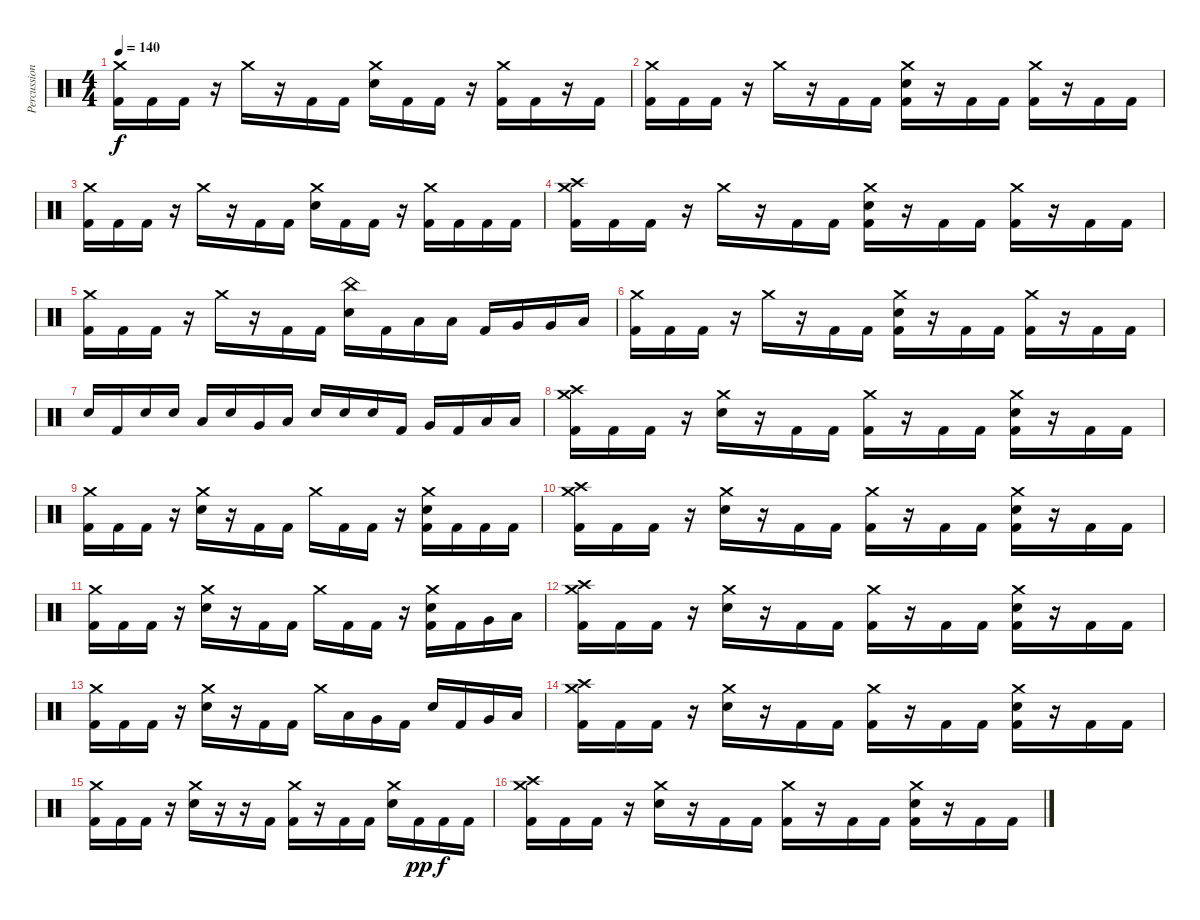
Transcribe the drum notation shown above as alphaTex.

\track ("Percussion" "Percussion") {instrument percussion}
\staff {score}
\articulation defaults
\ts (4 4)
\tempo 140
\clef neutral
\ks c
("Crash medium (hit)" "Kick (hit) 2").16{dy f} "Kick (hit) 2".16 "Kick (hit) 2".16 r.16 "Crash medium (hit)".16 r.16 "Kick (hit) 2".16 "Kick (hit) 2".16 ("Crash medium (hit)" "Electric Snare (hit)").16 "Kick (hit) 2".16 "Kick (hit) 2".16 r.16 ("Crash medium (hit)" "Kick (hit) 2").16 "Kick (hit) 2".16 r.16 "Kick (hit) 2".16 |
("Crash medium (hit)" "Kick (hit) 2").16 "Kick (hit) 2".16 "Kick (hit) 2".16 r.16 "Crash medium (hit)".16 r.16 "Kick (hit) 2".16 "Kick (hit) 2".16 ("Crash medium (hit)" "Electric Snare (hit)" "Kick (hit) 2").16 r.16 "Kick (hit) 2".16 "Kick (hit) 2".16 ("Crash medium (hit)" "Kick (hit) 2").16 r.16 "Kick (hit) 2".16 "Kick (hit) 2".16 |
("Crash medium (hit)" "Kick (hit) 2").16 "Kick (hit) 2".16 "Kick (hit) 2".16 r.16 "Crash medium (hit)".16 r.16 "Kick (hit) 2".16 "Kick (hit) 2".16 ("Crash medium (hit)" "Electric Snare (hit)").16 "Kick (hit) 2".16 "Kick (hit) 2".16 r.16 ("Crash medium (hit)" "Kick (hit) 2").16 "Kick (hit) 2".16 "Kick (hit) 2".16 "Kick (hit) 2".16 |
("Crash high (hit)" "Crash medium (hit)" "Kick (hit) 2").16 "Kick (hit) 2".16 "Kick (hit) 2".16 r.16 "Crash medium (hit)".16 r.16 "Kick (hit) 2".16 "Kick (hit) 2".16 ("Crash medium (hit)" "Electric Snare (hit)" "Kick (hit) 2").16 r.16 "Kick (hit) 2".16 "Kick (hit) 2".16 ("Crash medium (hit)" "Kick (hit) 2").16 r.16 "Kick (hit) 2".16 "Kick (hit) 2".16 |
("Crash medium (hit)" "Kick (hit) 2").16 "Kick (hit) 2".16 "Kick (hit) 2".16 r.16 "Crash medium (hit)".16 r.16 "Kick (hit) 2".16 "Kick (hit) 2".16 ("China (hit)" "Electric Snare (hit)").16 "Kick (hit) 2".16 "Low Tom (hit)".16 "Low Tom (hit)".16 "Kick (hit) 2".16 "Very Low Tom (hit)".16 "Very Low Tom (hit)".16 "Low Floor Tom (hit)".16 |
("Crash medium (hit)" "Kick (hit) 2").16 "Kick (hit) 2".16 "Kick (hit) 2".16 r.16 "Crash medium (hit)".16 r.16 "Kick (hit) 2".16 "Kick (hit) 2".16 ("Crash medium (hit)" "Electric Snare (hit)" "Kick (hit) 2").16 r.16 "Kick (hit) 2".16 "Kick (hit) 2".16 ("Crash medium (hit)" "Kick (hit) 2").16 r.16 "Kick (hit) 2".16 "Kick (hit) 2".16 |
"Electric Snare (hit)".16 "Kick (hit) 2".16 "Electric Snare (hit)".16 "Electric Snare (hit)".16 "Low Tom (hit)".16 "Electric Snare (hit)".16 "Very Low Tom (hit)".16 "Low Floor Tom (hit)".16 "Electric Snare (hit)".16 "Electric Snare (hit)".16 "Electric Snare (hit)".16 "Kick (hit) 2".16 "Very Low Tom (hit)".16 "Kick (hit) 2".16 "Low Floor Tom (hit)".16 "Low Floor Tom (hit)".16 |
("Crash high (hit)" "Crash medium (hit)" "Kick (hit) 2").16 "Kick (hit) 2".16 "Kick (hit) 2".16 r.16 ("Crash medium (hit)" "Electric Snare (hit)").16 r.16 "Kick (hit) 2".16 "Kick (hit) 2".16 ("Crash medium (hit)" "Kick (hit) 2").16 r.16 "Kick (hit) 2".16 "Kick (hit) 2".16 ("Crash medium (hit)" "Electric Snare (hit)" "Kick (hit) 2").16 r.16 "Kick (hit) 2".16 "Kick (hit) 2".16 |
("Crash medium (hit)" "Kick (hit) 2").16 "Kick (hit) 2".16 "Kick (hit) 2".16 r.16 ("Crash medium (hit)" "Electric Snare (hit)").16 r.16 "Kick (hit) 2".16 "Kick (hit) 2".16 "Crash medium (hit)".16 "Kick (hit) 2".16 "Kick (hit) 2".16 r.16 ("Crash medium (hit)" "Electric Snare (hit)" "Kick (hit) 2").16 "Kick (hit) 2".16 "Kick (hit) 2".16 "Kick (hit) 2".16 |
("Crash high (hit)" "Crash medium (hit)" "Kick (hit) 2").16 "Kick (hit) 2".16 "Kick (hit) 2".16 r.16 ("Crash medium (hit)" "Electric Snare (hit)").16 r.16 "Kick (hit) 2".16 "Kick (hit) 2".16 ("Crash medium (hit)" "Kick (hit) 2").16 r.16 "Kick (hit) 2".16 "Kick (hit) 2".16 ("Crash medium (hit)" "Electric Snare (hit)" "Kick (hit) 2").16 r.16 "Kick (hit) 2".16 "Kick (hit) 2".16 |
("Crash medium (hit)" "Kick (hit) 2").16 "Kick (hit) 2".16 "Kick (hit) 2".16 r.16 ("Crash medium (hit)" "Electric Snare (hit)").16 r.16 "Kick (hit) 2".16 "Kick (hit) 2".16 "Crash medium (hit)".16 "Kick (hit) 2".16 "Kick (hit) 2".16 r.16 ("Crash medium (hit)" "Electric Snare (hit)" "Kick (hit) 2").16 "Kick (hit) 2".16 "Very Low Tom (hit)".16 "Low Floor Tom (hit)".16 |
("Crash high (hit)" "Crash medium (hit)" "Kick (hit) 2").16 "Kick (hit) 2".16 "Kick (hit) 2".16 r.16 ("Crash medium (hit)" "Electric Snare (hit)").16 r.16 "Kick (hit) 2".16 "Kick (hit) 2".16 ("Crash medium (hit)" "Kick (hit) 2").16 r.16 "Kick (hit) 2".16 "Kick (hit) 2".16 ("Crash medium (hit)" "Electric Snare (hit)" "Kick (hit) 2").16 r.16 "Kick (hit) 2".16 "Kick (hit) 2".16 |
("Crash medium (hit)" "Kick (hit) 2").16 "Kick (hit) 2".16 "Kick (hit) 2".16 r.16 ("Crash medium (hit)" "Electric Snare (hit)").16 r.16 "Kick (hit) 2".16 "Kick (hit) 2".16 "Crash medium (hit)".16 "Low Tom (hit)".16 "Very Low Tom (hit)".16 "Kick (hit) 2".16 "Electric Snare (hit)".16 "Kick (hit) 2".16 "Very Low Tom (hit)".16 "Low Floor Tom (hit)".16 |
("Crash high (hit)" "Crash medium (hit)" "Kick (hit) 2").16 "Kick (hit) 2".16 "Kick (hit) 2".16 r.16 ("Crash medium (hit)" "Electric Snare (hit)").16 r.16 "Kick (hit) 2".16 "Kick (hit) 2".16 ("Crash medium (hit)" "Kick (hit) 2").16 r.16 "Kick (hit) 2".16 "Kick (hit) 2".16 ("Crash medium (hit)" "Electric Snare (hit)" "Kick (hit) 2").16 r.16 "Kick (hit) 2".16 "Kick (hit) 2".16 |
("Crash medium (hit)" "Kick (hit) 2").16 "Kick (hit) 2".16 "Kick (hit) 2".16 r.16 ("Crash medium (hit)" "Electric Snare (hit)").16 r.16 r.16 "Kick (hit) 2".16 ("Crash medium (hit)" "Kick (hit) 2").16 r.16 "Kick (hit) 2".16 "Kick (hit) 2".16 ("Crash medium (hit)" "Electric Snare (hit)").16 "Kick (hit) 2".16{dy pp} "Kick (hit) 2".16{dy f} "Kick (hit) 2".16 |
("Crash high (hit)" "Crash medium (hit)" "Kick (hit) 2").16 "Kick (hit) 2".16 "Kick (hit) 2".16 r.16 ("Crash medium (hit)" "Electric Snare (hit)").16 r.16 "Kick (hit) 2".16 "Kick (hit) 2".16 ("Crash medium (hit)" "Kick (hit) 2").16 r.16 "Kick (hit) 2".16 "Kick (hit) 2".16 ("Crash medium (hit)" "Electric Snare (hit)" "Kick (hit) 2").16 r.16 "Kick (hit) 2".16 "Kick (hit) 2".16
